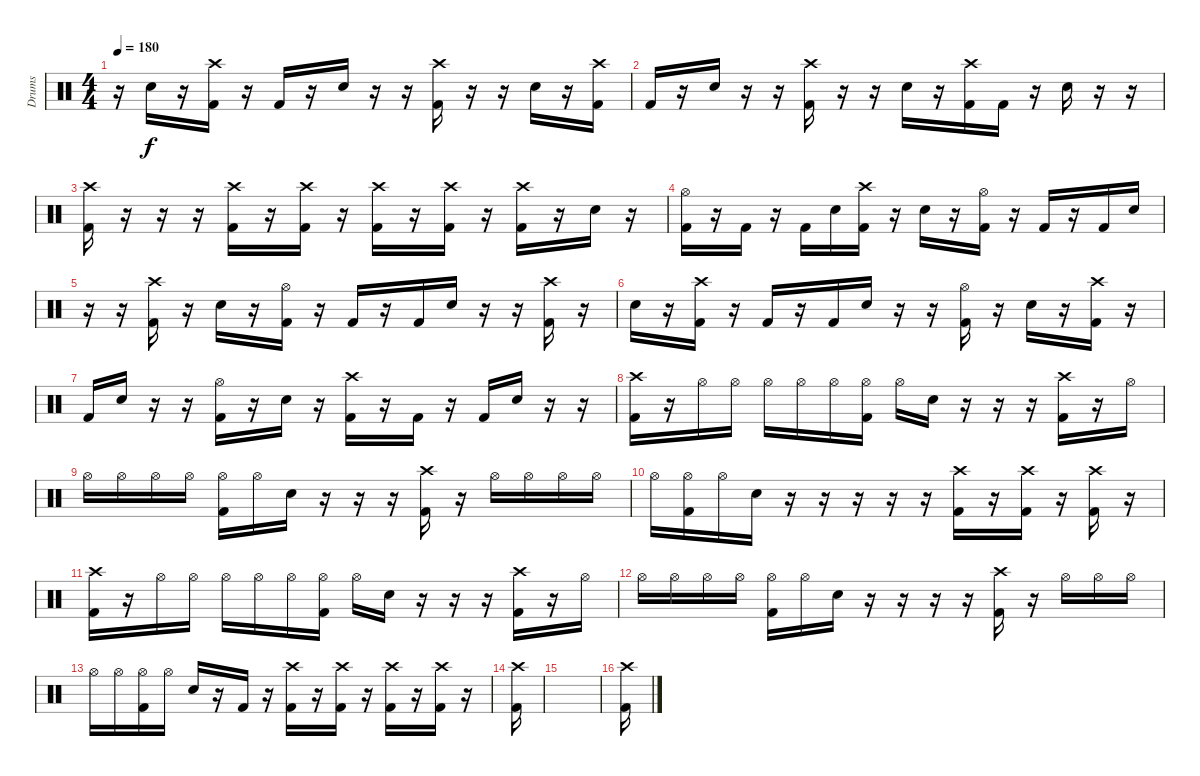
\track ("Drums" "Drums") {instrument percussion}
\staff {score}
\articulation defaults
\ts (4 4)
\tempo 180
\clef neutral
\ks c
r.16{dy f} "Electric Snare (hit)".16 r.16 ("Crash high (hit)" "Kick (hit) 2").16 r.16 "Kick (hit) 2".16 r.16 "Electric Snare (hit)".16 r.16 r.16 ("Kick (hit) 2" "Crash high (hit)").16 r.16 r.16 "Electric Snare (hit)".16 r.16 ("Kick (hit) 2" "Crash high (hit)").16 |
"Kick (hit) 2".16 r.16 "Electric Snare (hit)".16 r.16 r.16 ("Crash high (hit)" "Kick (hit) 2").16 r.16 r.16 "Electric Snare (hit)".16 r.16 ("Crash high (hit)" "Kick (hit) 2").16 "Kick (hit) 2".16 r.16 "Electric Snare (hit)".16 r.16 r.16 |
("Crash high (hit)" "Kick (hit) 2").16 r.16 r.16 r.16 ("Kick (hit) 2" "Crash high (hit)").16 r.16 ("Kick (hit) 2" "Crash high (hit)").16 r.16 ("Kick (hit) 2" "Crash high (hit)").16 r.16 ("Kick (hit) 2" "Crash high (hit)").16 r.16 ("Kick (hit) 2" "Crash high (hit)").16 r.16 "Electric Snare (hit)".16 r.16 |
("Hi-Hat (open)" "Kick (hit) 2").16 r.16 "Kick (hit) 2".16 r.16 "Kick (hit) 2".16 "Electric Snare (hit)".16 ("Crash high (hit)" "Kick (hit) 2").16 r.16 "Electric Snare (hit)".16 r.16 ("Hi-Hat (open)" "Kick (hit) 2").16 r.16 "Kick (hit) 2".16 r.16 "Kick (hit) 2".16 "Electric Snare (hit)".16 |
r.16 r.16 ("Kick (hit) 2" "Crash high (hit)").16 r.16 "Electric Snare (hit)".16 r.16 ("Kick (hit) 2" "Hi-Hat (open)").16 r.16 "Kick (hit) 2".16 r.16 "Kick (hit) 2".16 "Electric Snare (hit)".16 r.16 r.16 ("Crash high (hit)" "Kick (hit) 2").16 r.16 |
"Electric Snare (hit)".16 r.16 ("Kick (hit) 2" "Crash high (hit)").16 r.16 "Kick (hit) 2".16 r.16 "Kick (hit) 2".16 "Electric Snare (hit)".16 r.16 r.16 ("Hi-Hat (open)" "Kick (hit) 2").16 r.16 "Electric Snare (hit)".16 r.16 ("Kick (hit) 2" "Crash high (hit)").16 r.16 |
"Kick (hit) 2".16 "Electric Snare (hit)".16 r.16 r.16 ("Hi-Hat (open)" "Kick (hit) 2").16 r.16 "Electric Snare (hit)".16 r.16 ("Crash high (hit)" "Kick (hit) 2").16 r.16 "Kick (hit) 2".16 r.16 "Kick (hit) 2".16 "Electric Snare (hit)".16 r.16 r.16 |
("Kick (hit) 2" "Crash high (hit)").16 r.16 "Hi-Hat (open)".16 "Hi-Hat (open)".16 "Hi-Hat (open)".16 "Hi-Hat (open)".16 "Hi-Hat (open)".16 ("Hi-Hat (open)" "Kick (hit) 2").16 "Hi-Hat (open)".16 "Electric Snare (hit)".16 r.16 r.16 r.16 ("Kick (hit) 2" "Crash high (hit)").16 r.16 "Hi-Hat (open)".16 |
"Hi-Hat (open)".16 "Hi-Hat (open)".16 "Hi-Hat (open)".16 "Hi-Hat (open)".16 ("Hi-Hat (open)" "Kick (hit) 2").16 "Hi-Hat (open)".16 "Electric Snare (hit)".16 r.16 r.16 r.16 ("Kick (hit) 2" "Crash high (hit)").16 r.16 "Hi-Hat (open)".16 "Hi-Hat (open)".16 "Hi-Hat (open)".16 "Hi-Hat (open)".16 |
"Hi-Hat (open)".16 ("Hi-Hat (open)" "Kick (hit) 2").16 "Hi-Hat (open)".16 "Electric Snare (hit)".16 r.16 r.16 r.16 r.16 r.16 ("Kick (hit) 2" "Crash high (hit)").16 r.16 ("Kick (hit) 2" "Crash high (hit)").16 r.16 ("Kick (hit) 2" "Crash high (hit)").16 r.16 |
("Kick (hit) 2" "Crash high (hit)").16 r.16 "Hi-Hat (open)".16 "Hi-Hat (open)".16 "Hi-Hat (open)".16 "Hi-Hat (open)".16 "Hi-Hat (open)".16 ("Hi-Hat (open)" "Kick (hit) 2").16 "Hi-Hat (open)".16 "Electric Snare (hit)".16 r.16 r.16 r.16 ("Kick (hit) 2" "Crash high (hit)").16 r.16 "Hi-Hat (open)".16 |
"Hi-Hat (open)".16 "Hi-Hat (open)".16 "Hi-Hat (open)".16 "Hi-Hat (open)".16 ("Hi-Hat (open)" "Kick (hit) 2").16 "Hi-Hat (open)".16 "Electric Snare (hit)".16 r.16 r.16 r.16 r.16 ("Kick (hit) 2" "Crash high (hit)").16 r.16 "Hi-Hat (open)".16 "Hi-Hat (open)".16 "Hi-Hat (open)".16 |
"Hi-Hat (open)".16 "Hi-Hat (open)".16 ("Hi-Hat (open)" "Kick (hit) 2").16 "Hi-Hat (open)".16 "Electric Snare (hit)".16 r.16 "Kick (hit) 2".16 r.16 ("Crash high (hit)" "Kick (hit) 2").16 r.16 ("Crash high (hit)" "Kick (hit) 2").16 r.16 ("Kick (hit) 2" "Crash high (hit)").16 r.16 ("Kick (hit) 2" "Crash high (hit)").16 r.16 |
("Crash high (hit)" "Kick (hit) 2").16 |
|
("Crash high (hit)" "Kick (hit) 2").16
